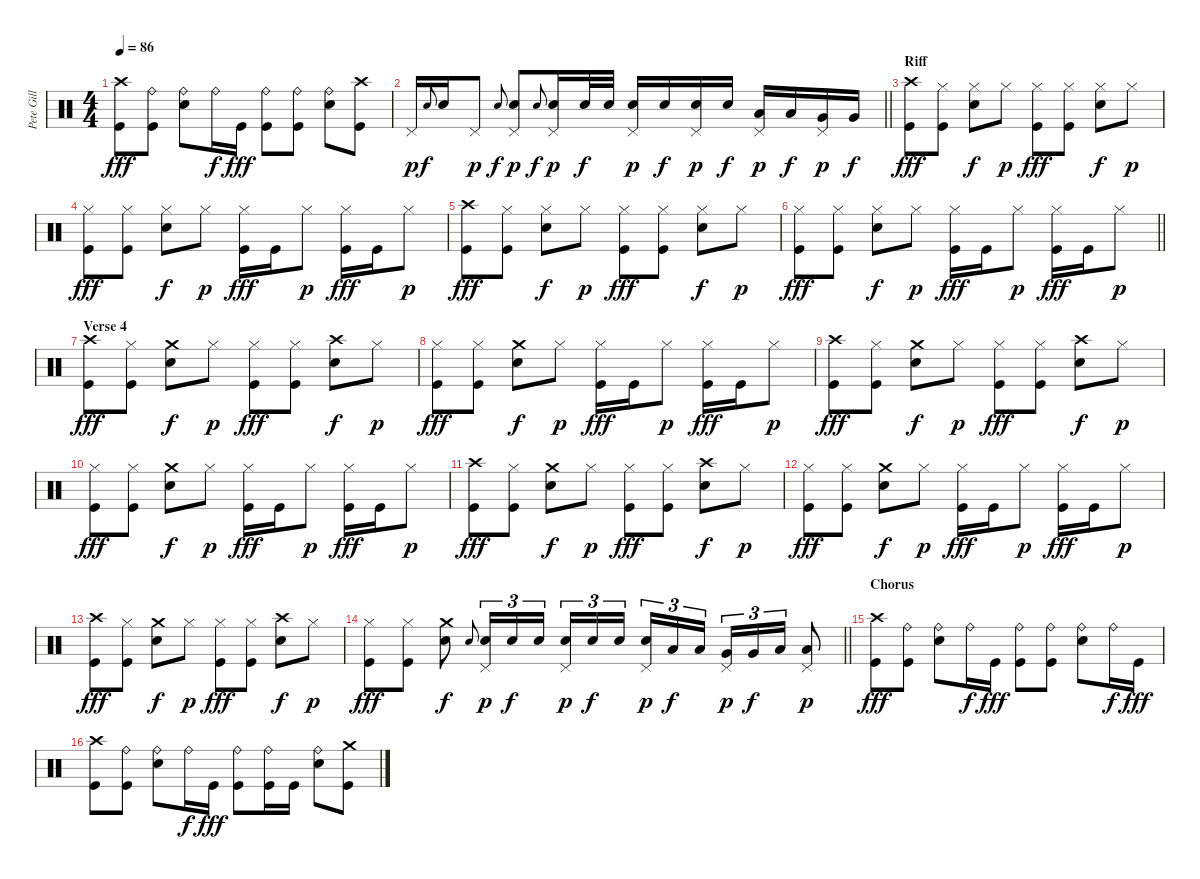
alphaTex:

\track ("Pete Gill" "Pete Gill") {instrument percussion}
\staff {score}
\articulation defaults
\ts (4 4)
\tempo 86
\clef neutral
\ks c
("Crash high (hit)" "Kick (hit)").8{dy fff} ("Ride (bell)" "Kick (hit)").8 ("Ride (bell)" "Electric Snare (hit)").8 "Ride (bell)".16{dy f} "Kick (hit)".16{dy fff} ("Ride (bell)" "Kick (hit)").8 ("Ride (bell)" "Kick (hit)").8 ("Ride (bell)" "Electric Snare (hit)").8 ("Crash high (hit)" "Kick (hit)").8 |
\barLineRight lightlight "Pedal Hi-Hat (hit)".16{dy p} "Electric Snare (hit)".8{gr onbeat dy f} "Electric Snare (hit)".16 "Pedal Hi-Hat (hit)".8{dy p} "Electric Snare (hit)".8{gr onbeat dy f}
("Pedal Hi-Hat (hit)" "Electric Snare (hit)").8{dy p} "Electric Snare (hit)".8{gr onbeat dy f} ("Pedal Hi-Hat (hit)" "Electric Snare (hit)").16{dy p} "Electric Snare (hit)".32{dy f} "Electric Snare (hit)".32 ("Pedal Hi-Hat (hit)" "Electric Snare (hit)").16{dy p} "Electric Snare (hit)".16{dy f} ("Pedal Hi-Hat (hit)" "Electric Snare (hit)").16{dy p} "Electric Snare (hit)".16{dy f} ("Pedal Hi-Hat (hit)" "Low Tom (hit)").16{dy p} "Low Tom (hit)".16{dy f} ("Pedal Hi-Hat (hit)" "Very Low Tom (hit)").16{dy p} "Very Low Tom (hit)".16{dy f} |
\section ("" "Riff")
("Crash high (hit)" "Kick (hit)").8{dy fff} ("Hi-Hat (closed)" "Kick (hit)").8 ("Hi-Hat (closed)" "Electric Snare (hit)").8{dy f} "Hi-Hat (closed)".8{dy p} ("Hi-Hat (closed)" "Kick (hit)").8{dy fff} ("Hi-Hat (closed)" "Kick (hit)").8 ("Hi-Hat (closed)" "Electric Snare (hit)").8{dy f} "Hi-Hat (closed)".8{dy p} |
("Hi-Hat (closed)" "Kick (hit)").8{dy fff} ("Hi-Hat (closed)" "Kick (hit)").8 ("Hi-Hat (closed)" "Electric Snare (hit)").8{dy f} "Hi-Hat (closed)".8{dy p} ("Hi-Hat (closed)" "Kick (hit)").16{dy fff} "Kick (hit)".16 "Hi-Hat (closed)".8{dy p} ("Hi-Hat (closed)" "Kick (hit)").16{dy fff} "Kick (hit)".16 "Hi-Hat (closed)".8{dy p} |
("Crash high (hit)" "Kick (hit)").8{dy fff} ("Hi-Hat (closed)" "Kick (hit)").8 ("Hi-Hat (closed)" "Electric Snare (hit)").8{dy f} "Hi-Hat (closed)".8{dy p} ("Hi-Hat (closed)" "Kick (hit)").8{dy fff} ("Hi-Hat (closed)" "Kick (hit)").8 ("Hi-Hat (closed)" "Electric Snare (hit)").8{dy f} "Hi-Hat (closed)".8{dy p} |
\barLineRight lightlight
("Hi-Hat (closed)" "Kick (hit)").8{dy fff} ("Hi-Hat (closed)" "Kick (hit)").8 ("Hi-Hat (closed)" "Electric Snare (hit)").8{dy f} "Hi-Hat (closed)".8{dy p} ("Hi-Hat (closed)" "Kick (hit)").16{dy fff} "Kick (hit)".16 "Hi-Hat (closed)".8{dy p} ("Hi-Hat (closed)" "Kick (hit)").16{dy fff} "Kick (hit)".16 "Hi-Hat (closed)".8{dy p} |
\section ("" "Verse 4")
("Crash high (hit)" "Kick (hit)").8{dy fff} ("Hi-Hat (closed)" "Kick (hit)").8 ("Crash medium (hit)" "Electric Snare (hit)").8{dy f} "Hi-Hat (closed)".8{dy p} ("Hi-Hat (closed)" "Kick (hit)").8{dy fff} ("Hi-Hat (closed)" "Kick (hit)").8 ("Crash high (hit)" "Electric Snare (hit)").8{dy f} "Hi-Hat (closed)".8{dy p} |
("Hi-Hat (closed)" "Kick (hit)").8{dy fff} ("Hi-Hat (closed)" "Kick (hit)").8 ("Crash medium (hit)" "Electric Snare (hit)").8{dy f} "Hi-Hat (closed)".8{dy p} ("Hi-Hat (closed)" "Kick (hit)").16{dy fff} "Kick (hit)".16 "Hi-Hat (closed)".8{dy p} ("Hi-Hat (closed)" "Kick (hit)").16{dy fff} "Kick (hit)".16 "Hi-Hat (closed)".8{dy p} |
("Crash high (hit)" "Kick (hit)").8{dy fff} ("Hi-Hat (closed)" "Kick (hit)").8 ("Crash medium (hit)" "Electric Snare (hit)").8{dy f} "Hi-Hat (closed)".8{dy p} ("Hi-Hat (closed)" "Kick (hit)").8{dy fff} ("Hi-Hat (closed)" "Kick (hit)").8 ("Crash high (hit)" "Electric Snare (hit)").8{dy f} "Hi-Hat (closed)".8{dy p} |
("Hi-Hat (closed)" "Kick (hit)").8{dy fff} ("Hi-Hat (closed)" "Kick (hit)").8 ("Crash medium (hit)" "Electric Snare (hit)").8{dy f} "Hi-Hat (closed)".8{dy p} ("Hi-Hat (closed)" "Kick (hit)").16{dy fff} "Kick (hit)".16 "Hi-Hat (closed)".8{dy p} ("Hi-Hat (closed)" "Kick (hit)").16{dy fff} "Kick (hit)".16 "Hi-Hat (closed)".8{dy p} |
("Crash high (hit)" "Kick (hit)").8{dy fff} ("Hi-Hat (closed)" "Kick (hit)").8 ("Crash medium (hit)" "Electric Snare (hit)").8{dy f} "Hi-Hat (closed)".8{dy p} ("Hi-Hat (closed)" "Kick (hit)").8{dy fff} ("Hi-Hat (closed)" "Kick (hit)").8 ("Crash high (hit)" "Electric Snare (hit)").8{dy f} "Hi-Hat (closed)".8{dy p} |
("Hi-Hat (closed)" "Kick (hit)").8{dy fff} ("Hi-Hat (closed)" "Kick (hit)").8 ("Crash medium (hit)" "Electric Snare (hit)").8{dy f} "Hi-Hat (closed)".8{dy p} ("Hi-Hat (closed)" "Kick (hit)").16{dy fff} "Kick (hit)".16 "Hi-Hat (closed)".8{dy p} ("Hi-Hat (closed)" "Kick (hit)").16{dy fff} "Kick (hit)".16 "Hi-Hat (closed)".8{dy p} |
("Crash high (hit)" "Kick (hit)").8{dy fff} ("Hi-Hat (closed)" "Kick (hit)").8 ("Crash medium (hit)" "Electric Snare (hit)").8{dy f} "Hi-Hat (closed)".8{dy p} ("Hi-Hat (closed)" "Kick (hit)").8{dy fff} ("Hi-Hat (closed)" "Kick (hit)").8 ("Crash high (hit)" "Electric Snare (hit)").8{dy f} "Hi-Hat (closed)".8{dy p} |
\barLineRight lightlight
("Hi-Hat (closed)" "Kick (hit)").8{dy fff} ("Hi-Hat (closed)" "Kick (hit)").8 ("Crash medium (hit)" "Electric Snare (hit)").8{dy f} "Electric Snare (hit)".8{gr onbeat} ("Pedal Hi-Hat (hit)" "Electric Snare (hit)").16{tu (3 2) dy p} "Electric Snare (hit)".16{tu (3 2) dy f} "Electric Snare (hit)".16{tu (3 2)} ("Pedal Hi-Hat (hit)" "Electric Snare (hit)").16{tu (3 2) dy p} "Electric Snare (hit)".16{tu (3 2) dy f} "Electric Snare (hit)".16{tu (3 2) beam splitsecondary} ("Pedal Hi-Hat (hit)" "Electric Snare (hit)").16{tu (3 2) dy p} "Low Tom (hit)".16{tu (3 2) dy f} "Low Tom (hit)".16{tu (3 2)} ("Pedal Hi-Hat (hit)" "Very Low Tom (hit)").16{tu (3 2) dy p} "Very Low Tom (hit)".16{tu (3 2) dy f} "Low Floor Tom (hit)".16{tu (3 2)} ("Pedal Hi-Hat (hit)" "Low Floor Tom (hit)").8{dy p} |
\section ("" "Chorus ")
("Crash high (hit)" "Kick (hit)").8{dy fff} ("Ride (bell)" "Kick (hit)").8 ("Ride (bell)" "Electric Snare (hit)").8 "Ride (bell)".16{dy f} "Kick (hit)".16{dy fff} ("Ride (bell)" "Kick (hit)").8 ("Ride (bell)" "Kick (hit)").8 ("Ride (bell)" "Electric Snare (hit)").8 "Ride (bell)".16{dy f} "Kick (hit)".16{dy fff} |
("Crash high (hit)" "Kick (hit)").8 ("Ride (bell)" "Kick (hit)").8 ("Ride (bell)" "Electric Snare (hit)").8 "Ride (bell)".16{dy f} "Kick (hit)".16{dy fff} ("Ride (bell)" "Kick (hit)").8 ("Ride (bell)" "Kick (hit)").16 "Kick (hit)".16 ("Ride (bell)" "Electric Snare (hit)").8 ("Crash medium (hit)" "Kick (hit)").8
